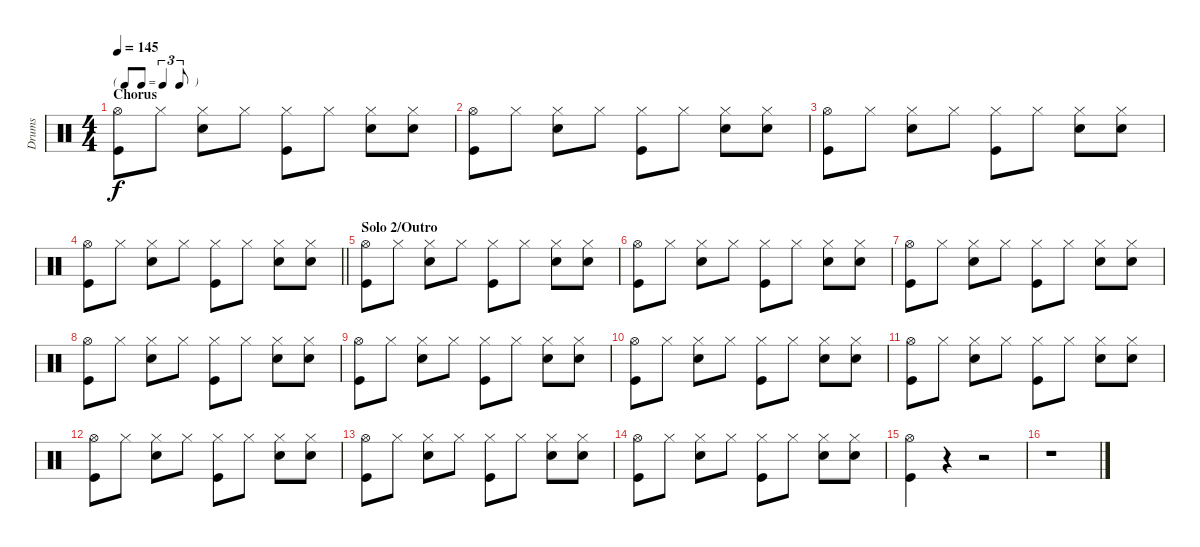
\track ("Drums" "Drums") {instrument percussion}
\staff {score}
\articulation defaults
\ts (4 4)
\tf triplet8th
\section ("" "Chorus")
\tempo 145
\clef neutral
\ks c
("Kick (hit)" "Hi-Hat (open)").8{dy f} "Hi-Hat (closed)".8 ("Snare (hit) 2" "Hi-Hat (closed)").8 "Hi-Hat (closed)".8 ("Kick (hit)" "Hi-Hat (closed)").8 "Hi-Hat (closed)".8 ("Snare (hit) 2" "Hi-Hat (closed)").8 ("Snare (hit) 2" "Hi-Hat (closed)").8 |
("Kick (hit)" "Hi-Hat (open)").8 "Hi-Hat (closed)".8 ("Snare (hit) 2" "Hi-Hat (closed)").8 "Hi-Hat (closed)".8 ("Kick (hit)" "Hi-Hat (closed)").8 "Hi-Hat (closed)".8 ("Snare (hit) 2" "Hi-Hat (closed)").8 ("Snare (hit) 2" "Hi-Hat (closed)").8 |
("Kick (hit)" "Hi-Hat (open)").8 "Hi-Hat (closed)".8 ("Snare (hit) 2" "Hi-Hat (closed)").8 "Hi-Hat (closed)".8 ("Kick (hit)" "Hi-Hat (closed)").8 "Hi-Hat (closed)".8 ("Snare (hit) 2" "Hi-Hat (closed)").8 ("Snare (hit) 2" "Hi-Hat (closed)").8 |
\barLineRight lightlight
("Kick (hit)" "Hi-Hat (open)").8 "Hi-Hat (closed)".8 ("Snare (hit) 2" "Hi-Hat (closed)").8 "Hi-Hat (closed)".8 ("Kick (hit)" "Hi-Hat (closed)").8 "Hi-Hat (closed)".8 ("Snare (hit) 2" "Hi-Hat (closed)").8 ("Snare (hit) 2" "Hi-Hat (closed)").8 |
\section ("" "Solo 2/Outro")
("Kick (hit)" "Hi-Hat (open)").8 "Hi-Hat (closed)".8 ("Snare (hit) 2" "Hi-Hat (closed)").8 "Hi-Hat (closed)".8 ("Kick (hit)" "Hi-Hat (closed)").8 "Hi-Hat (closed)".8 ("Snare (hit) 2" "Hi-Hat (closed)").8 ("Snare (hit) 2" "Hi-Hat (closed)").8 |
("Kick (hit)" "Hi-Hat (open)").8 "Hi-Hat (closed)".8 ("Snare (hit) 2" "Hi-Hat (closed)").8 "Hi-Hat (closed)".8 ("Kick (hit)" "Hi-Hat (closed)").8 "Hi-Hat (closed)".8 ("Snare (hit) 2" "Hi-Hat (closed)").8 ("Snare (hit) 2" "Hi-Hat (closed)").8 |
("Kick (hit)" "Hi-Hat (open)").8 "Hi-Hat (closed)".8 ("Snare (hit) 2" "Hi-Hat (closed)").8 "Hi-Hat (closed)".8 ("Kick (hit)" "Hi-Hat (closed)").8 "Hi-Hat (closed)".8 ("Snare (hit) 2" "Hi-Hat (closed)").8 ("Snare (hit) 2" "Hi-Hat (closed)").8 |
("Kick (hit)" "Hi-Hat (open)").8 "Hi-Hat (closed)".8 ("Snare (hit) 2" "Hi-Hat (closed)").8 "Hi-Hat (closed)".8 ("Kick (hit)" "Hi-Hat (closed)").8 "Hi-Hat (closed)".8 ("Snare (hit) 2" "Hi-Hat (closed)").8 ("Snare (hit) 2" "Hi-Hat (closed)").8 |
("Kick (hit)" "Hi-Hat (open)").8 "Hi-Hat (closed)".8 ("Snare (hit) 2" "Hi-Hat (closed)").8 "Hi-Hat (closed)".8 ("Kick (hit)" "Hi-Hat (closed)").8 "Hi-Hat (closed)".8 ("Snare (hit) 2" "Hi-Hat (closed)").8 ("Snare (hit) 2" "Hi-Hat (closed)").8 |
("Kick (hit)" "Hi-Hat (open)").8 "Hi-Hat (closed)".8 ("Snare (hit) 2" "Hi-Hat (closed)").8 "Hi-Hat (closed)".8 ("Kick (hit)" "Hi-Hat (closed)").8 "Hi-Hat (closed)".8 ("Snare (hit) 2" "Hi-Hat (closed)").8 ("Snare (hit) 2" "Hi-Hat (closed)").8 |
("Kick (hit)" "Hi-Hat (open)").8 "Hi-Hat (closed)".8 ("Snare (hit) 2" "Hi-Hat (closed)").8 "Hi-Hat (closed)".8 ("Kick (hit)" "Hi-Hat (closed)").8 "Hi-Hat (closed)".8 ("Snare (hit) 2" "Hi-Hat (closed)").8 ("Snare (hit) 2" "Hi-Hat (closed)").8 |
("Kick (hit)" "Hi-Hat (open)").8 "Hi-Hat (closed)".8 ("Snare (hit) 2" "Hi-Hat (closed)").8 "Hi-Hat (closed)".8 ("Kick (hit)" "Hi-Hat (closed)").8 "Hi-Hat (closed)".8 ("Snare (hit) 2" "Hi-Hat (closed)").8 ("Snare (hit) 2" "Hi-Hat (closed)").8 |
("Kick (hit)" "Hi-Hat (open)").8 "Hi-Hat (closed)".8 ("Snare (hit) 2" "Hi-Hat (closed)").8 "Hi-Hat (closed)".8 ("Kick (hit)" "Hi-Hat (closed)").8 "Hi-Hat (closed)".8 ("Snare (hit) 2" "Hi-Hat (closed)").8 ("Snare (hit) 2" "Hi-Hat (closed)").8 |
("Kick (hit)" "Hi-Hat (open)").8 "Hi-Hat (closed)".8 ("Snare (hit) 2" "Hi-Hat (closed)").8 "Hi-Hat (closed)".8 ("Kick (hit)" "Hi-Hat (closed)").8 "Hi-Hat (closed)".8 ("Snare (hit) 2" "Hi-Hat (closed)").8 ("Snare (hit) 2" "Hi-Hat (closed)").8 |
("Kick (hit)" "Hi-Hat (open)").4 r.4 r.2 |
r.1
